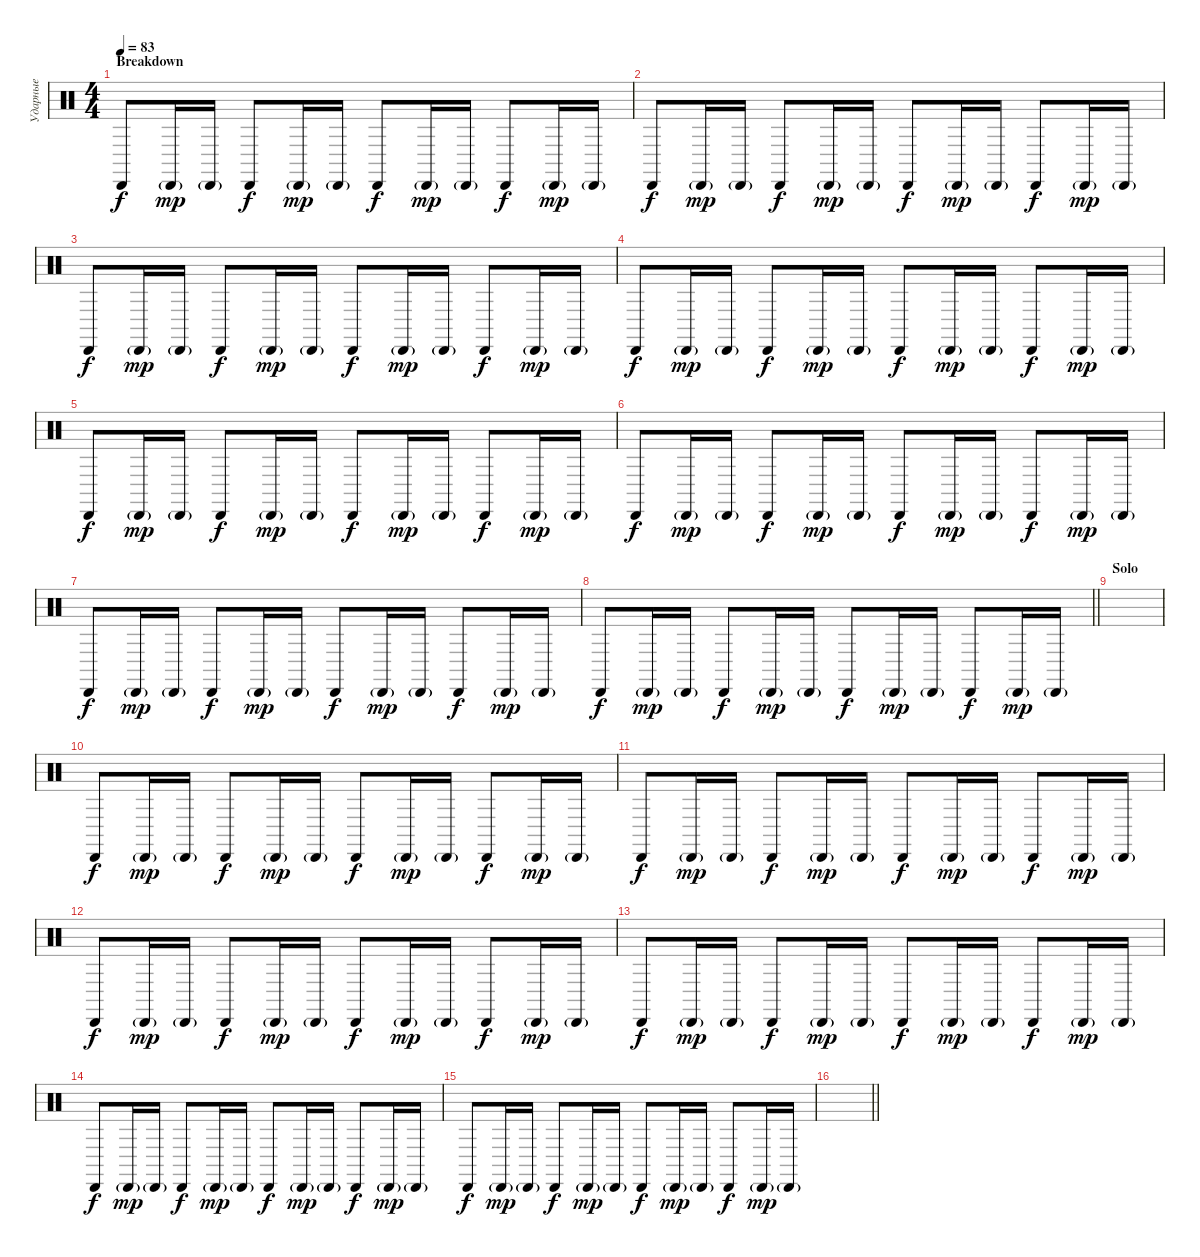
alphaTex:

\track ("Ударные" "Ударные") {instrument percussion}
\staff {score}
\articulation defaults
\ts (4 4)
\section ("" "Breakdown")
\tempo 83
\clef neutral
\ks c "Cabasa (hit)".8{dy f} "Cabasa (hit)"{g}.16{dy mp} "Cabasa (hit)"{g}.16 "Cabasa (hit)".8{dy f} "Cabasa (hit)"{g}.16{dy mp} "Cabasa (hit)"{g}.16 "Cabasa (hit)".8{dy f} "Cabasa (hit)"{g}.16{dy mp} "Cabasa (hit)"{g}.16 "Cabasa (hit)".8{dy f} "Cabasa (hit)"{g}.16{dy mp} "Cabasa (hit)"{g}.16
|
"Cabasa (hit)".8{dy f} "Cabasa (hit)"{g}.16{dy mp} "Cabasa (hit)"{g}.16 "Cabasa (hit)".8{dy f} "Cabasa (hit)"{g}.16{dy mp} "Cabasa (hit)"{g}.16 "Cabasa (hit)".8{dy f} "Cabasa (hit)"{g}.16{dy mp} "Cabasa (hit)"{g}.16 "Cabasa (hit)".8{dy f} "Cabasa (hit)"{g}.16{dy mp} "Cabasa (hit)"{g}.16 |
"Cabasa (hit)".8{dy f} "Cabasa (hit)"{g}.16{dy mp} "Cabasa (hit)"{g}.16 "Cabasa (hit)".8{dy f} "Cabasa (hit)"{g}.16{dy mp} "Cabasa (hit)"{g}.16 "Cabasa (hit)".8{dy f} "Cabasa (hit)"{g}.16{dy mp} "Cabasa (hit)"{g}.16 "Cabasa (hit)".8{dy f} "Cabasa (hit)"{g}.16{dy mp} "Cabasa (hit)"{g}.16 |
"Cabasa (hit)".8{dy f} "Cabasa (hit)"{g}.16{dy mp} "Cabasa (hit)"{g}.16 "Cabasa (hit)".8{dy f} "Cabasa (hit)"{g}.16{dy mp} "Cabasa (hit)"{g}.16 "Cabasa (hit)".8{dy f} "Cabasa (hit)"{g}.16{dy mp} "Cabasa (hit)"{g}.16 "Cabasa (hit)".8{dy f} "Cabasa (hit)"{g}.16{dy mp} "Cabasa (hit)"{g}.16 |
"Cabasa (hit)".8{dy f} "Cabasa (hit)"{g}.16{dy mp} "Cabasa (hit)"{g}.16 "Cabasa (hit)".8{dy f} "Cabasa (hit)"{g}.16{dy mp} "Cabasa (hit)"{g}.16 "Cabasa (hit)".8{dy f} "Cabasa (hit)"{g}.16{dy mp} "Cabasa (hit)"{g}.16 "Cabasa (hit)".8{dy f} "Cabasa (hit)"{g}.16{dy mp} "Cabasa (hit)"{g}.16 |
"Cabasa (hit)".8{dy f} "Cabasa (hit)"{g}.16{dy mp} "Cabasa (hit)"{g}.16 "Cabasa (hit)".8{dy f} "Cabasa (hit)"{g}.16{dy mp} "Cabasa (hit)"{g}.16 "Cabasa (hit)".8{dy f} "Cabasa (hit)"{g}.16{dy mp} "Cabasa (hit)"{g}.16 "Cabasa (hit)".8{dy f} "Cabasa (hit)"{g}.16{dy mp} "Cabasa (hit)"{g}.16 |
"Cabasa (hit)".8{dy f} "Cabasa (hit)"{g}.16{dy mp} "Cabasa (hit)"{g}.16 "Cabasa (hit)".8{dy f} "Cabasa (hit)"{g}.16{dy mp} "Cabasa (hit)"{g}.16 "Cabasa (hit)".8{dy f} "Cabasa (hit)"{g}.16{dy mp} "Cabasa (hit)"{g}.16 "Cabasa (hit)".8{dy f} "Cabasa (hit)"{g}.16{dy mp} "Cabasa (hit)"{g}.16 |
\barLineRight lightlight "Cabasa (hit)".8{dy f} "Cabasa (hit)"{g}.16{dy mp} "Cabasa (hit)"{g}.16 "Cabasa (hit)".8{dy f} "Cabasa (hit)"{g}.16{dy mp} "Cabasa (hit)"{g}.16 "Cabasa (hit)".8{dy f} "Cabasa (hit)"{g}.16{dy mp} "Cabasa (hit)"{g}.16 "Cabasa (hit)".8{dy f} "Cabasa (hit)"{g}.16{dy mp} "Cabasa (hit)"{g}.16
|
\section ("" "Solo")
|
"Cabasa (hit)".8{dy f} "Cabasa (hit)"{g}.16{dy mp} "Cabasa (hit)"{g}.16 "Cabasa (hit)".8{dy f} "Cabasa (hit)"{g}.16{dy mp} "Cabasa (hit)"{g}.16 "Cabasa (hit)".8{dy f} "Cabasa (hit)"{g}.16{dy mp} "Cabasa (hit)"{g}.16 "Cabasa (hit)".8{dy f} "Cabasa (hit)"{g}.16{dy mp} "Cabasa (hit)"{g}.16 |
"Cabasa (hit)".8{dy f} "Cabasa (hit)"{g}.16{dy mp} "Cabasa (hit)"{g}.16 "Cabasa (hit)".8{dy f} "Cabasa (hit)"{g}.16{dy mp} "Cabasa (hit)"{g}.16 "Cabasa (hit)".8{dy f} "Cabasa (hit)"{g}.16{dy mp} "Cabasa (hit)"{g}.16 "Cabasa (hit)".8{dy f} "Cabasa (hit)"{g}.16{dy mp} "Cabasa (hit)"{g}.16 |
"Cabasa (hit)".8{dy f} "Cabasa (hit)"{g}.16{dy mp} "Cabasa (hit)"{g}.16 "Cabasa (hit)".8{dy f} "Cabasa (hit)"{g}.16{dy mp} "Cabasa (hit)"{g}.16 "Cabasa (hit)".8{dy f} "Cabasa (hit)"{g}.16{dy mp} "Cabasa (hit)"{g}.16 "Cabasa (hit)".8{dy f} "Cabasa (hit)"{g}.16{dy mp} "Cabasa (hit)"{g}.16 |
"Cabasa (hit)".8{dy f} "Cabasa (hit)"{g}.16{dy mp} "Cabasa (hit)"{g}.16 "Cabasa (hit)".8{dy f} "Cabasa (hit)"{g}.16{dy mp} "Cabasa (hit)"{g}.16 "Cabasa (hit)".8{dy f} "Cabasa (hit)"{g}.16{dy mp} "Cabasa (hit)"{g}.16 "Cabasa (hit)".8{dy f} "Cabasa (hit)"{g}.16{dy mp} "Cabasa (hit)"{g}.16 |
"Cabasa (hit)".8{dy f} "Cabasa (hit)"{g}.16{dy mp} "Cabasa (hit)"{g}.16 "Cabasa (hit)".8{dy f} "Cabasa (hit)"{g}.16{dy mp} "Cabasa (hit)"{g}.16 "Cabasa (hit)".8{dy f} "Cabasa (hit)"{g}.16{dy mp} "Cabasa (hit)"{g}.16 "Cabasa (hit)".8{dy f} "Cabasa (hit)"{g}.16{dy mp} "Cabasa (hit)"{g}.16 |
"Cabasa (hit)".8{dy f} "Cabasa (hit)"{g}.16{dy mp} "Cabasa (hit)"{g}.16 "Cabasa (hit)".8{dy f} "Cabasa (hit)"{g}.16{dy mp} "Cabasa (hit)"{g}.16 "Cabasa (hit)".8{dy f} "Cabasa (hit)"{g}.16{dy mp} "Cabasa (hit)"{g}.16 "Cabasa (hit)".8{dy f} "Cabasa (hit)"{g}.16{dy mp} "Cabasa (hit)"{g}.16 |
\barLineRight lightlight
